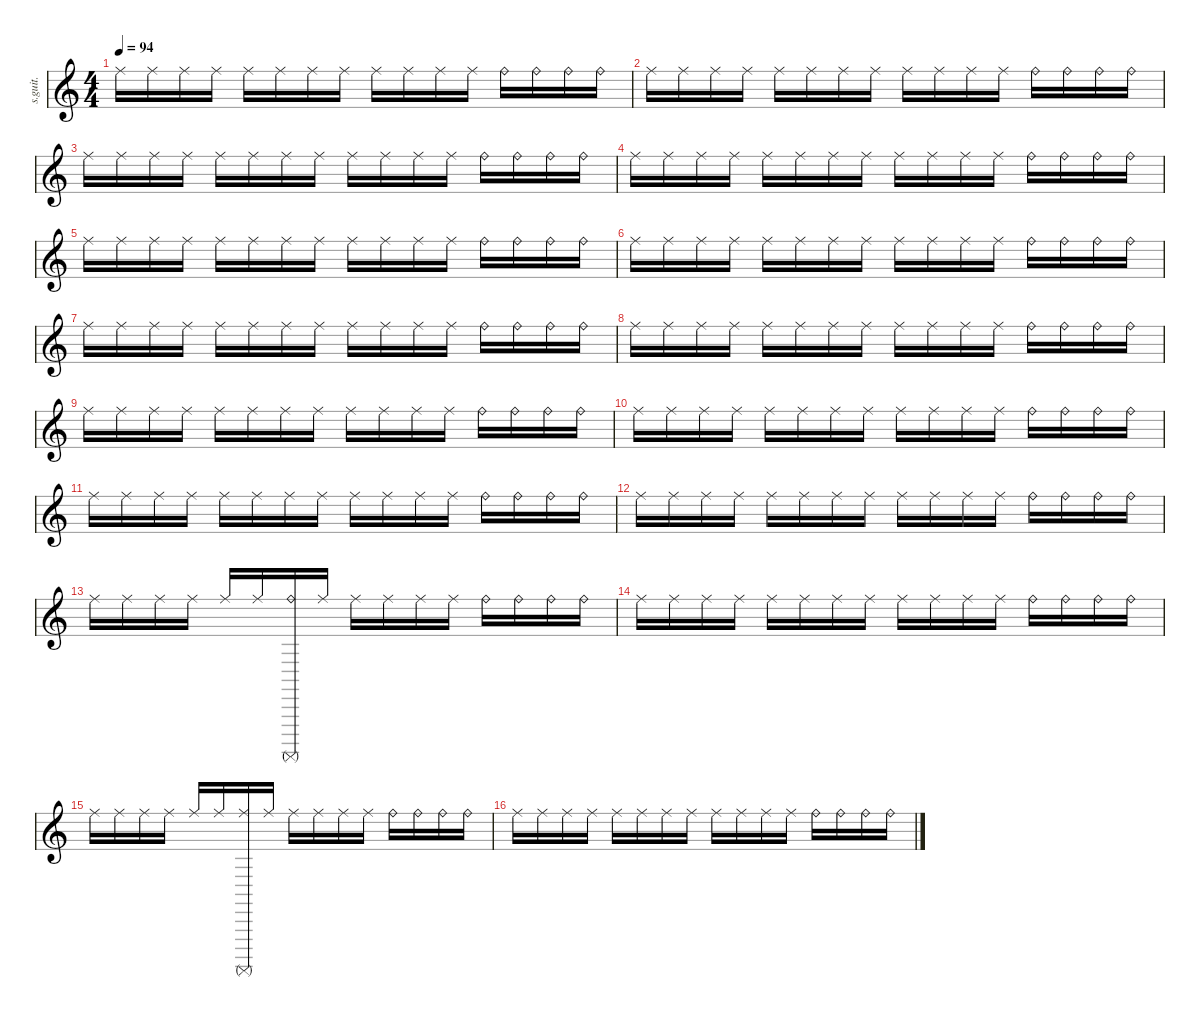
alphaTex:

\defaultSystemsLayout 4
\hideDynamics
\bracketExtendMode nobrackets
\track ("David Silveria" "s.guit.") {instrument percussion}
\staff {score}
\articulation defaults
\ts (4 4)
\beaming (8 2 2 2 2)
\tempo 94
\clef g2
\ks c "Ride (middle)".16{dy mf} "Ride (middle)".16 "Ride (middle)".16 "Ride (middle)".16 "Ride (middle)".16 "Ride (middle)".16 "Ride (middle)".16 "Ride (middle)".16 "Ride (middle)".16 "Ride (middle)".16 "Ride (middle)".16 "Ride (middle)".16 "Ride (bell)".16 "Ride (bell)".16 "Ride (bell)".16 "Ride (bell)".16
|
"Ride (middle)".16 "Ride (middle)".16 "Ride (middle)".16 "Ride (middle)".16 "Ride (middle)".16 "Ride (middle)".16 "Ride (middle)".16 "Ride (middle)".16 "Ride (middle)".16 "Ride (middle)".16 "Ride (middle)".16 "Ride (middle)".16 "Ride (bell)".16 "Ride (bell)".16 "Ride (bell)".16 "Ride (bell)".16 |
"Ride (middle)".16 "Ride (middle)".16 "Ride (middle)".16 "Ride (middle)".16 "Ride (middle)".16 "Ride (middle)".16 "Ride (middle)".16 "Ride (middle)".16 "Ride (middle)".16 "Ride (middle)".16 "Ride (middle)".16 "Ride (middle)".16 "Ride (bell)".16 "Ride (bell)".16 "Ride (bell)".16 "Ride (bell)".16 |
"Ride (middle)".16 "Ride (middle)".16 "Ride (middle)".16 "Ride (middle)".16 "Ride (middle)".16 "Ride (middle)".16 "Ride (middle)".16 "Ride (middle)".16 "Ride (middle)".16 "Ride (middle)".16 "Ride (middle)".16 "Ride (middle)".16 "Ride (bell)".16 "Ride (bell)".16 "Ride (bell)".16 "Ride (bell)".16 |
"Ride (middle)".16 "Ride (middle)".16 "Ride (middle)".16 "Ride (middle)".16 "Ride (middle)".16 "Ride (middle)".16 "Ride (middle)".16 "Ride (middle)".16 "Ride (middle)".16 "Ride (middle)".16 "Ride (middle)".16 "Ride (middle)".16 "Ride (bell)".16 "Ride (bell)".16 "Ride (bell)".16 "Ride (bell)".16 |
"Ride (middle)".16 "Ride (middle)".16 "Ride (middle)".16 "Ride (middle)".16 "Ride (middle)".16 "Ride (middle)".16 "Ride (middle)".16 "Ride (middle)".16 "Ride (middle)".16 "Ride (middle)".16 "Ride (middle)".16 "Ride (middle)".16 "Ride (bell)".16 "Ride (bell)".16 "Ride (bell)".16 "Ride (bell)".16 |
"Ride (middle)".16 "Ride (middle)".16 "Ride (middle)".16 "Ride (middle)".16 "Ride (middle)".16 "Ride (middle)".16 "Ride (middle)".16 "Ride (middle)".16 "Ride (middle)".16 "Ride (middle)".16 "Ride (middle)".16 "Ride (middle)".16 "Ride (bell)".16 "Ride (bell)".16 "Ride (bell)".16 "Ride (bell)".16 |
"Ride (middle)".16 "Ride (middle)".16 "Ride (middle)".16 "Ride (middle)".16 "Ride (middle)".16 "Ride (middle)".16 "Ride (middle)".16 "Ride (middle)".16 "Ride (middle)".16 "Ride (middle)".16 "Ride (middle)".16 "Ride (middle)".16 "Ride (bell)".16 "Ride (bell)".16 "Ride (bell)".16 "Ride (bell)".16 |
"Ride (middle)".16 "Ride (middle)".16 "Ride (middle)".16 "Ride (middle)".16 "Ride (middle)".16 "Ride (middle)".16 "Ride (middle)".16 "Ride (middle)".16 "Ride (middle)".16 "Ride (middle)".16 "Ride (middle)".16 "Ride (middle)".16 "Ride (bell)".16 "Ride (bell)".16 "Ride (bell)".16 "Ride (bell)".16 |
"Ride (middle)".16 "Ride (middle)".16 "Ride (middle)".16 "Ride (middle)".16 "Ride (middle)".16 "Ride (middle)".16 "Ride (middle)".16 "Ride (middle)".16 "Ride (middle)".16 "Ride (middle)".16 "Ride (middle)".16 "Ride (middle)".16 "Ride (bell)".16 "Ride (bell)".16 "Ride (bell)".16 "Ride (bell)".16 |
"Ride (middle)".16 "Ride (middle)".16 "Ride (middle)".16 "Ride (middle)".16 "Ride (middle)".16 "Ride (middle)".16 "Ride (middle)".16 "Ride (middle)".16 "Ride (middle)".16 "Ride (middle)".16 "Ride (middle)".16 "Ride (middle)".16 "Ride (bell)".16 "Ride (bell)".16 "Ride (bell)".16 "Ride (bell)".16 |
"Ride (middle)".16 "Ride (middle)".16 "Ride (middle)".16 "Ride (middle)".16 "Ride (middle)".16 "Ride (middle)".16 "Ride (middle)".16 "Ride (middle)".16 "Ride (middle)".16 "Ride (middle)".16 "Ride (middle)".16 "Ride (middle)".16 "Ride (bell)".16 "Ride (bell)".16 "Ride (bell)".16 "Ride (bell)".16 |
"Ride (middle)".16 "Ride (middle)".16 "Ride (middle)".16 "Ride (middle)".16 "Ride (middle)".16 "Ride (middle)".16 ("Ride (bell)" "Surdo (mute)").16 "Ride (middle)".16 "Ride (middle)".16 "Ride (middle)".16 "Ride (middle)".16 "Ride (middle)".16 "Ride (bell)".16 "Ride (bell)".16 "Ride (bell)".16 "Ride (bell)".16 |
"Ride (middle)".16 "Ride (middle)".16 "Ride (middle)".16 "Ride (middle)".16 "Ride (middle)".16 "Ride (middle)".16 "Ride (middle)".16 "Ride (middle)".16 "Ride (middle)".16 "Ride (middle)".16 "Ride (middle)".16 "Ride (middle)".16 "Ride (bell)".16 "Ride (bell)".16 "Ride (bell)".16 "Ride (bell)".16 |
"Ride (middle)".16 "Ride (middle)".16 "Ride (middle)".16 "Ride (middle)".16 "Ride (middle)".16 "Ride (middle)".16 ("Ride (middle)" "Surdo (mute)").16 "Ride (middle)".16 "Ride (middle)".16 "Ride (middle)".16 "Ride (middle)".16 "Ride (middle)".16 "Ride (bell)".16 "Ride (bell)".16 "Ride (bell)".16 "Ride (bell)".16 |
"Ride (middle)".16 "Ride (middle)".16 "Ride (middle)".16 "Ride (middle)".16 "Ride (middle)".16 "Ride (middle)".16 "Ride (middle)".16 "Ride (middle)".16 "Ride (middle)".16 "Ride (middle)".16 "Ride (middle)".16 "Ride (middle)".16 "Ride (bell)".16 "Ride (bell)".16 "Ride (bell)".16 "Ride (bell)".16
